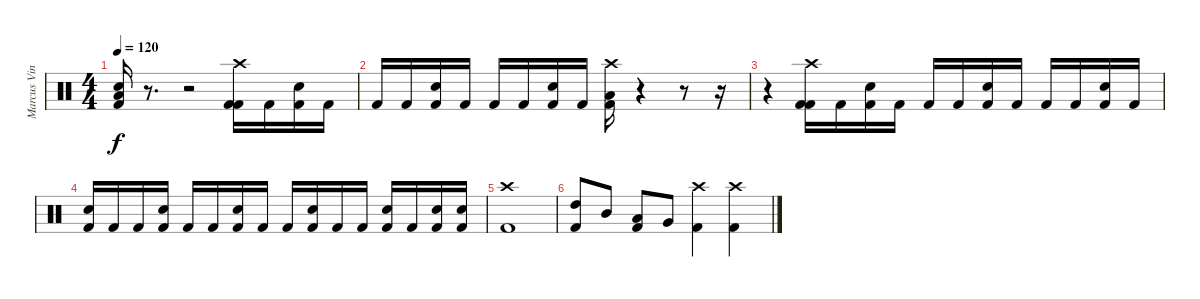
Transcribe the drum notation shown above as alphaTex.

\track ("Marcus Vinicius" "Marcus Vin") {instrument percussion}
\staff {score}
\articulation defaults
\ts (4 4)
\tempo 120
\clef neutral
\ks c
("Kick (hit) 2" "Electric Snare (hit)" "Low Floor Tom (hit)").16{dy f} r.8{d} r.2 ("Kick (hit) 2" "Kick (hit) 2" "Crash high (hit)").16 "Kick (hit) 2".16 ("Kick (hit) 2" "Electric Snare (hit)").16 "Kick (hit) 2".16 |
"Kick (hit) 2".16 "Kick (hit) 2".16 ("Kick (hit) 2" "Electric Snare (hit)").16 "Kick (hit) 2".16 "Kick (hit) 2".16 "Kick (hit) 2".16 ("Kick (hit) 2" "Electric Snare (hit)").16 "Kick (hit) 2".16 ("Kick (hit) 2" "Low Floor Tom (hit)" "Crash high (hit)").16 r.4 r.8 r.16 |
r.4 ("Kick (hit) 2" "Kick (hit) 2" "Crash high (hit)").16 "Kick (hit) 2".16 ("Kick (hit) 2" "Electric Snare (hit)").16 "Kick (hit) 2".16 "Kick (hit) 2".16 "Kick (hit) 2".16 ("Kick (hit) 2" "Electric Snare (hit)").16 "Kick (hit) 2".16 "Kick (hit) 2".16 "Kick (hit) 2".16 ("Kick (hit) 2" "Electric Snare (hit)").16 "Kick (hit) 2".16 |
("Kick (hit) 2" "Electric Snare (hit)").16 "Kick (hit) 2".16 "Kick (hit) 2".16 ("Kick (hit) 2" "Electric Snare (hit)").16 "Kick (hit) 2".16 "Kick (hit) 2".16 ("Kick (hit) 2" "Electric Snare (hit)").16 "Kick (hit) 2".16 "Kick (hit) 2".16 ("Kick (hit) 2" "Electric Snare (hit)").16 "Kick (hit) 2".16 "Kick (hit) 2".16 ("Kick (hit) 2" "Electric Snare (hit)").16 "Kick (hit) 2".16 ("Kick (hit) 2" "Electric Snare (hit)").16 ("Kick (hit) 2" "Electric Snare (hit)").16 |
("Kick (hit) 2" "Crash high (hit)").1 |
("Kick (hit) 2" "High Tom (hit)").8 "Mid Tom (hit)".8 ("Kick (hit) 2" "Low Tom (hit)").8 "Very Low Tom (hit)".8 ("Kick (hit) 2" "Crash high (hit)").4 ("Kick (hit) 2" "Crash high (hit)").4
